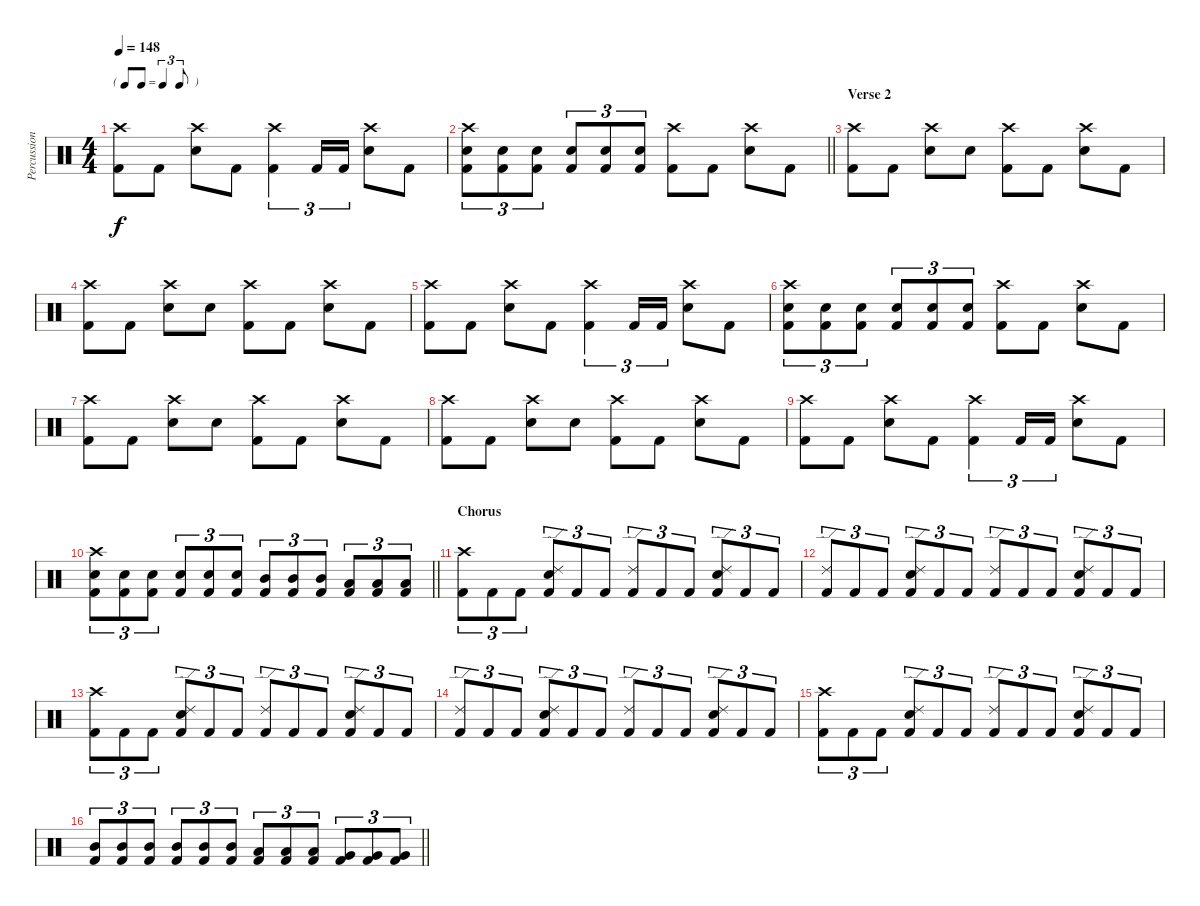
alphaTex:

\track ("Percussion" "Percussion") {instrument percussion}
\staff {score}
\articulation defaults
\ts (4 4)
\tf triplet8th
\tempo 148
\clef neutral
\ks c
("Crash high (hit)" "Kick (hit) 2").8{dy f} "Kick (hit) 2".8 ("Crash high (hit)" "Snare (hit) 2").8 "Kick (hit) 2".8 ("Crash high (hit)" "Kick (hit) 2").4{tu (3 2)} "Kick (hit) 2".16{tu (3 2)} "Kick (hit) 2".16{tu (3 2)} ("Crash high (hit)" "Snare (hit) 2").8 "Kick (hit) 2".8 |
\barLineRight lightlight
("Crash high (hit)" "Snare (hit) 2" "Kick (hit) 2").8{tu (3 2)} ("Snare (hit) 2" "Kick (hit) 2").8{tu (3 2)} ("Snare (hit) 2" "Kick (hit) 2").8{tu (3 2)} ("Snare (hit) 2" "Kick (hit) 2").8{tu (3 2)} ("Snare (hit) 2" "Kick (hit) 2").8{tu (3 2)} ("Snare (hit) 2" "Kick (hit) 2").8{tu (3 2)} ("Crash high (hit)" "Kick (hit) 2").8 "Kick (hit) 2".8 ("Crash high (hit)" "Snare (hit) 2").8 "Kick (hit) 2".8 |
\section ("" "Verse 2")
("Crash high (hit)" "Kick (hit) 2").8 "Kick (hit) 2".8 ("Crash high (hit)" "Snare (hit) 2").8 "Snare (hit) 2".8 ("Crash high (hit)" "Kick (hit) 2").8 "Kick (hit) 2".8 ("Crash high (hit)" "Snare (hit) 2").8 "Kick (hit) 2".8 |
("Crash high (hit)" "Kick (hit) 2").8 "Kick (hit) 2".8 ("Crash high (hit)" "Snare (hit) 2").8 "Snare (hit) 2".8 ("Crash high (hit)" "Kick (hit) 2").8 "Kick (hit) 2".8 ("Crash high (hit)" "Snare (hit) 2").8 "Kick (hit) 2".8 |
("Crash high (hit)" "Kick (hit) 2").8 "Kick (hit) 2".8 ("Crash high (hit)" "Snare (hit) 2").8 "Kick (hit) 2".8 ("Crash high (hit)" "Kick (hit) 2").4{tu (3 2)} "Kick (hit) 2".16{tu (3 2)} "Kick (hit) 2".16{tu (3 2)} ("Crash high (hit)" "Snare (hit) 2").8 "Kick (hit) 2".8 |
("Crash high (hit)" "Snare (hit) 2" "Kick (hit) 2").8{tu (3 2)} ("Snare (hit) 2" "Kick (hit) 2").8{tu (3 2)} ("Snare (hit) 2" "Kick (hit) 2").8{tu (3 2)} ("Snare (hit) 2" "Kick (hit) 2").8{tu (3 2)} ("Snare (hit) 2" "Kick (hit) 2").8{tu (3 2)} ("Snare (hit) 2" "Kick (hit) 2").8{tu (3 2)} ("Crash high (hit)" "Kick (hit) 2").8 "Kick (hit) 2".8 ("Crash high (hit)" "Snare (hit) 2").8 "Kick (hit) 2".8 |
("Crash high (hit)" "Kick (hit) 2").8 "Kick (hit) 2".8 ("Crash high (hit)" "Snare (hit) 2").8 "Snare (hit) 2".8 ("Crash high (hit)" "Kick (hit) 2").8 "Kick (hit) 2".8 ("Crash high (hit)" "Snare (hit) 2").8 "Kick (hit) 2".8 |
("Crash high (hit)" "Kick (hit) 2").8 "Kick (hit) 2".8 ("Crash high (hit)" "Snare (hit) 2").8 "Snare (hit) 2".8 ("Crash high (hit)" "Kick (hit) 2").8 "Kick (hit) 2".8 ("Crash high (hit)" "Snare (hit) 2").8 "Kick (hit) 2".8 |
("Crash high (hit)" "Kick (hit) 2").8 "Kick (hit) 2".8 ("Crash high (hit)" "Snare (hit) 2").8 "Kick (hit) 2".8 ("Crash high (hit)" "Kick (hit) 2").4{tu (3 2)} "Kick (hit) 2".16{tu (3 2)} "Kick (hit) 2".16{tu (3 2)} ("Crash high (hit)" "Snare (hit) 2").8 "Kick (hit) 2".8 |
\barLineRight lightlight
("Crash high (hit)" "Snare (hit) 2" "Kick (hit) 2").8{tu (3 2)} ("Snare (hit) 2" "Kick (hit) 2").8{tu (3 2)} ("Snare (hit) 2" "Kick (hit) 2").8{tu (3 2)} ("Snare (hit) 2" "Kick (hit) 2").8{tu (3 2)} ("Snare (hit) 2" "Kick (hit) 2").8{tu (3 2)} ("Snare (hit) 2" "Kick (hit) 2").8{tu (3 2)} ("Mid Tom (hit)" "Kick (hit) 2").8{tu (3 2)} ("Mid Tom (hit)" "Kick (hit) 2").8{tu (3 2)} ("Mid Tom (hit)" "Kick (hit) 2").8{tu (3 2)} ("Low Tom (hit)" "Kick (hit) 2").8{tu (3 2)} ("Low Tom (hit)" "Kick (hit) 2").8{tu (3 2)} ("Low Tom (hit)" "Kick (hit) 2").8{tu (3 2)} |
\section ("" "Chorus")
("Crash high (hit)" "Kick (hit) 2").8{tu (3 2)} "Kick (hit) 2".8{tu (3 2)} "Kick (hit) 2".8{tu (3 2)} ("Ride (edge) 2" "Snare (hit) 2" "Kick (hit) 2").8{tu (3 2)} "Kick (hit) 2".8{tu (3 2)} "Kick (hit) 2".8{tu (3 2)} ("Ride (edge) 2" "Kick (hit) 2").8{tu (3 2)} "Kick (hit) 2".8{tu (3 2)} "Kick (hit) 2".8{tu (3 2)} ("Ride (edge) 2" "Snare (hit) 2" "Kick (hit) 2").8{tu (3 2)} "Kick (hit) 2".8{tu (3 2)} "Kick (hit) 2".8{tu (3 2)} |
("Ride (edge) 2" "Kick (hit) 2").8{tu (3 2)} "Kick (hit) 2".8{tu (3 2)} "Kick (hit) 2".8{tu (3 2)} ("Ride (edge) 2" "Snare (hit) 2" "Kick (hit) 2").8{tu (3 2)} "Kick (hit) 2".8{tu (3 2)} "Kick (hit) 2".8{tu (3 2)} ("Ride (edge) 2" "Kick (hit) 2").8{tu (3 2)} "Kick (hit) 2".8{tu (3 2)} "Kick (hit) 2".8{tu (3 2)} ("Ride (edge) 2" "Snare (hit) 2" "Kick (hit) 2").8{tu (3 2)} "Kick (hit) 2".8{tu (3 2)} "Kick (hit) 2".8{tu (3 2)} |
("Crash high (hit)" "Kick (hit) 2").8{tu (3 2)} "Kick (hit) 2".8{tu (3 2)} "Kick (hit) 2".8{tu (3 2)} ("Ride (edge) 2" "Snare (hit) 2" "Kick (hit) 2").8{tu (3 2)} "Kick (hit) 2".8{tu (3 2)} "Kick (hit) 2".8{tu (3 2)} ("Ride (edge) 2" "Kick (hit) 2").8{tu (3 2)} "Kick (hit) 2".8{tu (3 2)} "Kick (hit) 2".8{tu (3 2)} ("Ride (edge) 2" "Snare (hit) 2" "Kick (hit) 2").8{tu (3 2)} "Kick (hit) 2".8{tu (3 2)} "Kick (hit) 2".8{tu (3 2)} |
("Ride (edge) 2" "Kick (hit) 2").8{tu (3 2)} "Kick (hit) 2".8{tu (3 2)} "Kick (hit) 2".8{tu (3 2)} ("Ride (edge) 2" "Snare (hit) 2" "Kick (hit) 2").8{tu (3 2)} "Kick (hit) 2".8{tu (3 2)} "Kick (hit) 2".8{tu (3 2)} ("Ride (edge) 2" "Kick (hit) 2").8{tu (3 2)} "Kick (hit) 2".8{tu (3 2)} "Kick (hit) 2".8{tu (3 2)} ("Ride (edge) 2" "Snare (hit) 2" "Kick (hit) 2").8{tu (3 2)} "Kick (hit) 2".8{tu (3 2)} "Kick (hit) 2".8{tu (3 2)} |
("Crash high (hit)" "Kick (hit) 2").8{tu (3 2)} "Kick (hit) 2".8{tu (3 2)} "Kick (hit) 2".8{tu (3 2)} ("Ride (edge) 2" "Snare (hit) 2" "Kick (hit) 2").8{tu (3 2)} "Kick (hit) 2".8{tu (3 2)} "Kick (hit) 2".8{tu (3 2)} ("Ride (edge) 2" "Kick (hit) 2").8{tu (3 2)} "Kick (hit) 2".8{tu (3 2)} "Kick (hit) 2".8{tu (3 2)} ("Ride (edge) 2" "Snare (hit) 2" "Kick (hit) 2").8{tu (3 2)} "Kick (hit) 2".8{tu (3 2)} "Kick (hit) 2".8{tu (3 2)} |
\barLineRight lightlight
("Mid Tom (hit)" "Kick (hit) 2").8{tu (3 2)} ("Mid Tom (hit)" "Kick (hit) 2").8{tu (3 2)} ("Mid Tom (hit)" "Kick (hit) 2").8{tu (3 2)} ("Mid Tom (hit)" "Kick (hit) 2").8{tu (3 2)} ("Mid Tom (hit)" "Kick (hit) 2").8{tu (3 2)} ("Mid Tom (hit)" "Kick (hit) 2").8{tu (3 2)} ("Low Tom (hit)" "Kick (hit) 2").8{tu (3 2)} ("Low Tom (hit)" "Kick (hit) 2").8{tu (3 2)} ("Low Tom (hit)" "Kick (hit) 2").8{tu (3 2)} ("Very Low Tom (hit)" "Kick (hit) 2").8{tu (3 2)} ("Very Low Tom (hit)" "Kick (hit) 2").8{tu (3 2)} ("Very Low Tom (hit)" "Kick (hit) 2").8{tu (3 2)}
